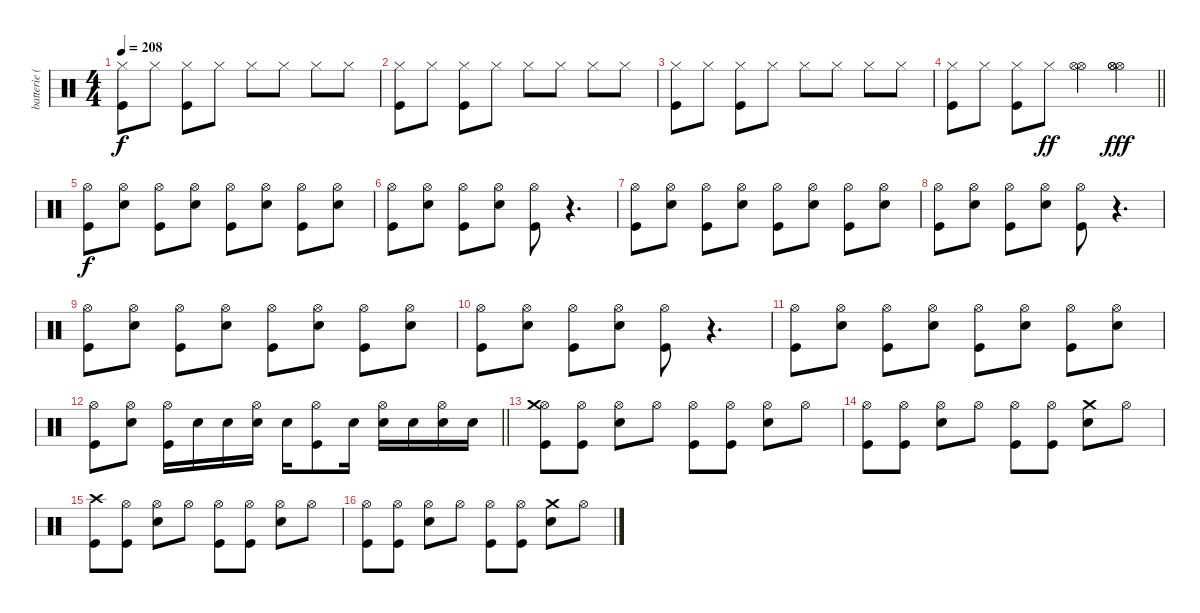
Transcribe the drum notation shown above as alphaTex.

\track ("batterie ( Guillaume ) " "batterie (") {instrument percussion}
\staff {score}
\articulation defaults
\ts (4 4)
\tempo 208
\clef neutral
\ks c
("Hi-Hat (closed)" "Kick (hit)").8{dy f} "Hi-Hat (closed)".8 ("Hi-Hat (closed)" "Kick (hit)").8 "Hi-Hat (closed)".8 "Hi-Hat (closed)".8 "Hi-Hat (closed)".8 "Hi-Hat (closed)".8 "Hi-Hat (closed)".8 |
("Hi-Hat (closed)" "Kick (hit)").8 "Hi-Hat (closed)".8 ("Hi-Hat (closed)" "Kick (hit)").8 "Hi-Hat (closed)".8 "Hi-Hat (closed)".8 "Hi-Hat (closed)".8 "Hi-Hat (closed)".8 "Hi-Hat (closed)".8 |
("Hi-Hat (closed)" "Kick (hit)").8 "Hi-Hat (closed)".8 ("Hi-Hat (closed)" "Kick (hit)").8 "Hi-Hat (closed)".8 "Hi-Hat (closed)".8 "Hi-Hat (closed)".8 "Hi-Hat (closed)".8 "Hi-Hat (closed)".8 |
\barLineRight lightlight
("Hi-Hat (closed)" "Kick (hit)").8 "Hi-Hat (closed)".8 ("Hi-Hat (closed)" "Kick (hit)").8 "Hi-Hat (closed)".8{dy ff} ("Hi-Hat (open)" "Hi-Hat (open)").4 ("Hi-Hat (open)" "Hi-Hat (open)" "Hi-Hat (open)").4{dy fff} |
("Hi-Hat (open)" "Kick (hit)").8{dy f} ("Hi-Hat (open)" "Electric Snare (hit)").8 ("Hi-Hat (open)" "Kick (hit)").8 ("Hi-Hat (open)" "Electric Snare (hit)").8 ("Hi-Hat (open)" "Kick (hit)").8 ("Hi-Hat (open)" "Electric Snare (hit)").8 ("Hi-Hat (open)" "Kick (hit)").8 ("Hi-Hat (open)" "Electric Snare (hit)").8 |
("Hi-Hat (open)" "Kick (hit)").8 ("Hi-Hat (open)" "Electric Snare (hit)").8 ("Hi-Hat (open)" "Kick (hit)").8 ("Hi-Hat (open)" "Electric Snare (hit)").8 ("Hi-Hat (open)" "Kick (hit)").8 r.4{d} |
("Hi-Hat (open)" "Kick (hit)").8 ("Hi-Hat (open)" "Electric Snare (hit)").8 ("Hi-Hat (open)" "Kick (hit)").8 ("Hi-Hat (open)" "Electric Snare (hit)").8 ("Hi-Hat (open)" "Kick (hit)").8 ("Hi-Hat (open)" "Electric Snare (hit)").8 ("Hi-Hat (open)" "Kick (hit)").8 ("Hi-Hat (open)" "Electric Snare (hit)").8 |
("Hi-Hat (open)" "Kick (hit)").8 ("Hi-Hat (open)" "Electric Snare (hit)").8 ("Hi-Hat (open)" "Kick (hit)").8 ("Hi-Hat (open)" "Electric Snare (hit)").8 ("Hi-Hat (open)" "Kick (hit)").8 r.4{d} |
("Hi-Hat (open)" "Kick (hit)").8 ("Hi-Hat (open)" "Electric Snare (hit)").8 ("Hi-Hat (open)" "Kick (hit)").8 ("Hi-Hat (open)" "Electric Snare (hit)").8 ("Hi-Hat (open)" "Kick (hit)").8 ("Hi-Hat (open)" "Electric Snare (hit)").8 ("Hi-Hat (open)" "Kick (hit)").8 ("Hi-Hat (open)" "Electric Snare (hit)").8 |
("Hi-Hat (open)" "Kick (hit)").8 ("Hi-Hat (open)" "Electric Snare (hit)").8 ("Hi-Hat (open)" "Kick (hit)").8 ("Hi-Hat (open)" "Electric Snare (hit)").8 ("Hi-Hat (open)" "Kick (hit)").8 r.4{d} |
("Hi-Hat (open)" "Kick (hit)").8 ("Hi-Hat (open)" "Electric Snare (hit)").8 ("Hi-Hat (open)" "Kick (hit)").8 ("Hi-Hat (open)" "Electric Snare (hit)").8 ("Hi-Hat (open)" "Kick (hit)").8 ("Hi-Hat (open)" "Electric Snare (hit)").8 ("Hi-Hat (open)" "Kick (hit)").8 ("Hi-Hat (open)" "Electric Snare (hit)").8 |
\barLineRight lightlight
("Hi-Hat (open)" "Kick (hit)").8 ("Hi-Hat (open)" "Electric Snare (hit)").8 ("Hi-Hat (open)" "Kick (hit)").16 "Electric Snare (hit)".16 "Electric Snare (hit)".16 ("Hi-Hat (open)" "Electric Snare (hit)").16 "Electric Snare (hit)".16 ("Hi-Hat (open)" "Kick (hit)").8 "Electric Snare (hit)".16 ("Hi-Hat (open)" "Electric Snare (hit)").16 "Electric Snare (hit)".16 ("Hi-Hat (open)" "Electric Snare (hit)").16 "Electric Snare (hit)".16 |
("Hi-Hat (open)" "Crash medium (hit)" "Kick (hit)").8 ("Hi-Hat (open)" "Kick (hit)").8 ("Hi-Hat (open)" "Electric Snare (hit)").8 "Hi-Hat (open)".8 ("Hi-Hat (open)" "Kick (hit)").8 ("Hi-Hat (open)" "Kick (hit)").8 ("Hi-Hat (open)" "Electric Snare (hit)").8 "Hi-Hat (open)".8 |
("Hi-Hat (open)" "Kick (hit)").8 ("Hi-Hat (open)" "Kick (hit)").8 ("Hi-Hat (open)" "Electric Snare (hit)").8 "Hi-Hat (open)".8 ("Hi-Hat (open)" "Kick (hit)").8 ("Hi-Hat (open)" "Kick (hit)").8 ("Crash medium (hit)" "Electric Snare (hit)").8 "Hi-Hat (open)".8 |
("Crash high (hit)" "Kick (hit)").8 ("Hi-Hat (open)" "Kick (hit)").8 ("Hi-Hat (open)" "Electric Snare (hit)").8 "Hi-Hat (open)".8 ("Hi-Hat (open)" "Kick (hit)").8 ("Hi-Hat (open)" "Kick (hit)").8 ("Hi-Hat (open)" "Electric Snare (hit)").8 "Hi-Hat (open)".8 |
("Hi-Hat (open)" "Kick (hit)").8 ("Hi-Hat (open)" "Kick (hit)").8 ("Hi-Hat (open)" "Electric Snare (hit)").8 "Hi-Hat (open)".8 ("Hi-Hat (open)" "Kick (hit)").8 ("Hi-Hat (open)" "Kick (hit)").8 ("Crash medium (hit)" "Electric Snare (hit)").8 "Hi-Hat (open)".8
